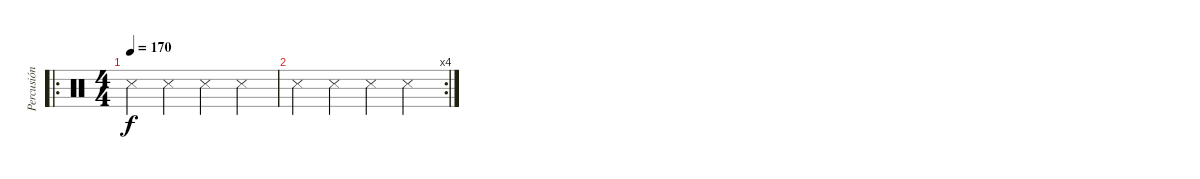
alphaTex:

\track ("Percusión" "Percusión") {instrument percussion}
\staff {score}
\articulation defaults
\ro
\ts (4 4)
\tempo 170
\clef neutral
\ks c "Metronome (hit)".4{dy f} "Metronome (hit)".4 "Metronome (hit)".4 "Metronome (hit)".4
|
\rc 4 "Metronome (hit)".4 "Metronome (hit)".4 "Metronome (hit)".4 "Metronome (hit)".4
